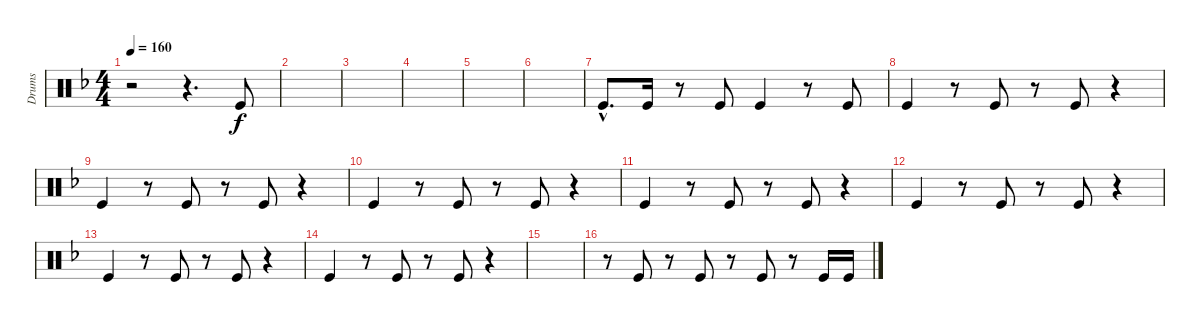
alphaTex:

\track ("Drums" "Drums") {instrument percussion}
\staff {score}
\articulation defaults
\ts (4 4)
\tempo 160
\clef neutral
\ks f
r.2{dy f} r.4{d} "Kick (hit)".8 |
|
|
|
|
|
"Kick (hit)"{hac}.8{d} "Kick (hit)".16 r.8 "Kick (hit)".8 "Kick (hit)".4 r.8 "Kick (hit)".8 |
"Kick (hit)".4 r.8 "Kick (hit)".8 r.8 "Kick (hit)".8 r.4 |
"Kick (hit)".4 r.8 "Kick (hit)".8 r.8 "Kick (hit)".8 r.4 |
"Kick (hit)".4 r.8 "Kick (hit)".8 r.8 "Kick (hit)".8 r.4 |
"Kick (hit)".4 r.8 "Kick (hit)".8 r.8 "Kick (hit)".8 r.4 |
"Kick (hit)".4 r.8 "Kick (hit)".8 r.8 "Kick (hit)".8 r.4 |
"Kick (hit)".4 r.8 "Kick (hit)".8 r.8 "Kick (hit)".8 r.4 |
"Kick (hit)".4 r.8 "Kick (hit)".8 r.8 "Kick (hit)".8 r.4 |
|
r.8 "Kick (hit)".8 r.8 "Kick (hit)".8 r.8 "Kick (hit)".8 r.8 "Kick (hit)".16 "Kick (hit)".16
